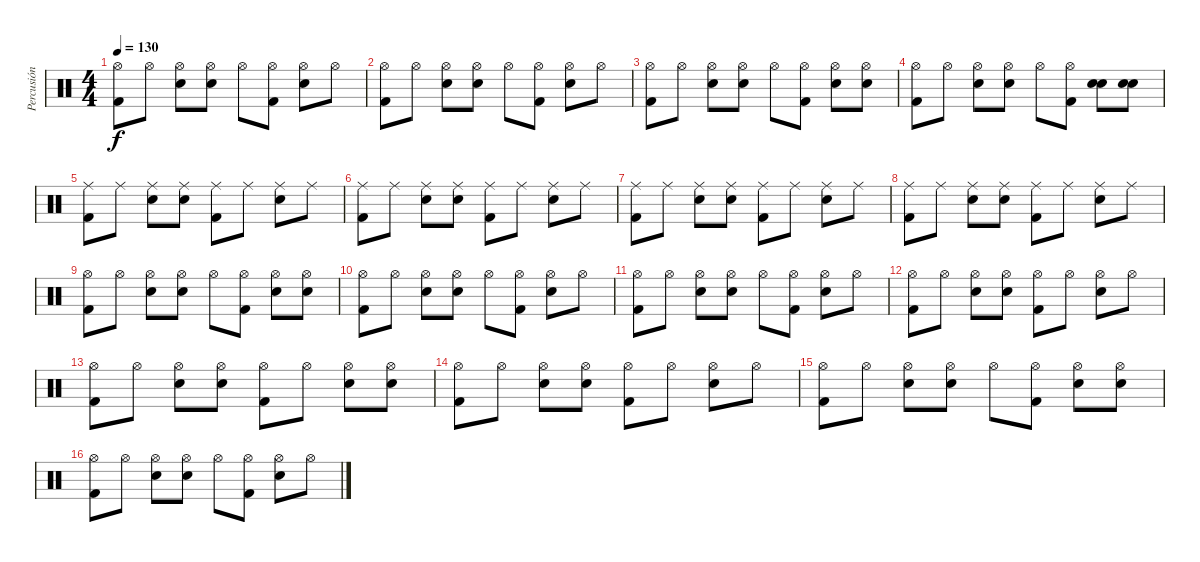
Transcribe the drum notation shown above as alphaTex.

\track ("Percusión" "Percusión") {instrument percussion}
\staff {score}
\articulation defaults
\ts (4 4)
\tempo 130
\clef neutral
\ks c
("Hi-Hat (open)" "Kick (hit) 2").8{dy f} "Hi-Hat (open)".8 ("Hi-Hat (open)" "Electric Snare (hit)").8 ("Hi-Hat (open)" "Electric Snare (hit)").8 "Hi-Hat (open)".8 ("Hi-Hat (open)" "Kick (hit) 2").8 ("Hi-Hat (open)" "Electric Snare (hit)").8 "Hi-Hat (open)".8 |
("Hi-Hat (open)" "Kick (hit) 2").8 "Hi-Hat (open)".8 ("Hi-Hat (open)" "Electric Snare (hit)").8 ("Hi-Hat (open)" "Electric Snare (hit)").8 "Hi-Hat (open)".8 ("Hi-Hat (open)" "Kick (hit) 2").8 ("Hi-Hat (open)" "Electric Snare (hit)").8 "Hi-Hat (open)".8 |
("Hi-Hat (open)" "Kick (hit) 2").8 "Hi-Hat (open)".8 ("Hi-Hat (open)" "Electric Snare (hit)").8 ("Hi-Hat (open)" "Electric Snare (hit)").8 "Hi-Hat (open)".8 ("Hi-Hat (open)" "Kick (hit) 2").8 ("Hi-Hat (open)" "Electric Snare (hit)").8 ("Hi-Hat (open)" "Electric Snare (hit)").8 |
("Hi-Hat (open)" "Kick (hit) 2").8 "Hi-Hat (open)".8 ("Hi-Hat (open)" "Electric Snare (hit)").8 ("Hi-Hat (open)" "Electric Snare (hit)").8 "Hi-Hat (open)".8 ("Hi-Hat (open)" "Kick (hit) 2").8 ("Electric Snare (hit)" "Electric Snare (hit)").8 ("Electric Snare (hit)" "Electric Snare (hit)").8 |
("Ride (middle)" "Kick (hit) 2").8 "Ride (middle)".8 ("Ride (middle)" "Electric Snare (hit)").8 ("Ride (middle)" "Electric Snare (hit)").8 ("Ride (middle)" "Kick (hit) 2").8 "Ride (middle)".8 ("Ride (middle)" "Electric Snare (hit)").8 "Ride (middle)".8 |
("Ride (middle)" "Kick (hit) 2").8 "Ride (middle)".8 ("Ride (middle)" "Electric Snare (hit)").8 ("Ride (middle)" "Electric Snare (hit)").8 ("Ride (middle)" "Kick (hit) 2").8 "Ride (middle)".8 ("Ride (middle)" "Electric Snare (hit)").8 "Ride (middle)".8 |
("Ride (middle)" "Kick (hit) 2").8 "Ride (middle)".8 ("Ride (middle)" "Electric Snare (hit)").8 ("Ride (middle)" "Electric Snare (hit)").8 ("Ride (middle)" "Kick (hit) 2").8 "Ride (middle)".8 ("Ride (middle)" "Electric Snare (hit)").8 "Ride (middle)".8 |
("Ride (middle)" "Kick (hit) 2").8 "Ride (middle)".8 ("Ride (middle)" "Electric Snare (hit)").8 ("Ride (middle)" "Electric Snare (hit)").8 ("Ride (middle)" "Kick (hit) 2").8 "Ride (middle)".8 ("Ride (middle)" "Electric Snare (hit)").8 "Ride (middle)".8 |
("Hi-Hat (open)" "Kick (hit) 2").8 "Hi-Hat (open)".8 ("Hi-Hat (open)" "Electric Snare (hit)").8 ("Hi-Hat (open)" "Electric Snare (hit)").8 "Hi-Hat (open)".8 ("Hi-Hat (open)" "Kick (hit) 2").8 ("Hi-Hat (open)" "Electric Snare (hit)").8 ("Hi-Hat (open)" "Electric Snare (hit)").8 |
("Hi-Hat (open)" "Kick (hit) 2").8 "Hi-Hat (open)".8 ("Hi-Hat (open)" "Electric Snare (hit)").8 ("Hi-Hat (open)" "Electric Snare (hit)").8 "Hi-Hat (open)".8 ("Hi-Hat (open)" "Kick (hit) 2").8 ("Hi-Hat (open)" "Electric Snare (hit)").8 "Hi-Hat (open)".8 |
("Hi-Hat (open)" "Kick (hit) 2").8 "Hi-Hat (open)".8 ("Hi-Hat (open)" "Electric Snare (hit)").8 ("Hi-Hat (open)" "Electric Snare (hit)").8 "Hi-Hat (open)".8 ("Hi-Hat (open)" "Kick (hit) 2").8 ("Hi-Hat (open)" "Electric Snare (hit)").8 "Hi-Hat (open)".8 |
("Hi-Hat (open)" "Kick (hit) 2").8 "Hi-Hat (open)".8 ("Hi-Hat (open)" "Electric Snare (hit)").8 ("Hi-Hat (open)" "Electric Snare (hit)").8 ("Hi-Hat (open)" "Kick (hit) 2").8 "Hi-Hat (open)".8 ("Hi-Hat (open)" "Electric Snare (hit)").8 "Hi-Hat (open)".8 |
("Hi-Hat (open)" "Kick (hit) 2").8 "Hi-Hat (open)".8 ("Hi-Hat (open)" "Electric Snare (hit)").8 ("Hi-Hat (open)" "Electric Snare (hit)").8 ("Hi-Hat (open)" "Kick (hit) 2").8 "Hi-Hat (open)".8 ("Hi-Hat (open)" "Electric Snare (hit)").8 ("Hi-Hat (open)" "Electric Snare (hit)").8 |
("Hi-Hat (open)" "Kick (hit) 2").8 "Hi-Hat (open)".8 ("Hi-Hat (open)" "Electric Snare (hit)").8 ("Hi-Hat (open)" "Electric Snare (hit)").8 ("Hi-Hat (open)" "Kick (hit) 2").8 "Hi-Hat (open)".8 ("Hi-Hat (open)" "Electric Snare (hit)").8 "Hi-Hat (open)".8 |
("Hi-Hat (open)" "Kick (hit) 2").8 "Hi-Hat (open)".8 ("Hi-Hat (open)" "Electric Snare (hit)").8 ("Hi-Hat (open)" "Electric Snare (hit)").8 "Hi-Hat (open)".8 ("Hi-Hat (open)" "Kick (hit) 2").8 ("Hi-Hat (open)" "Electric Snare (hit)").8 ("Hi-Hat (open)" "Electric Snare (hit)").8 |
("Hi-Hat (open)" "Kick (hit) 2").8 "Hi-Hat (open)".8 ("Hi-Hat (open)" "Electric Snare (hit)").8 ("Hi-Hat (open)" "Electric Snare (hit)").8 "Hi-Hat (open)".8 ("Hi-Hat (open)" "Kick (hit) 2").8 ("Hi-Hat (open)" "Electric Snare (hit)").8 "Hi-Hat (open)".8
